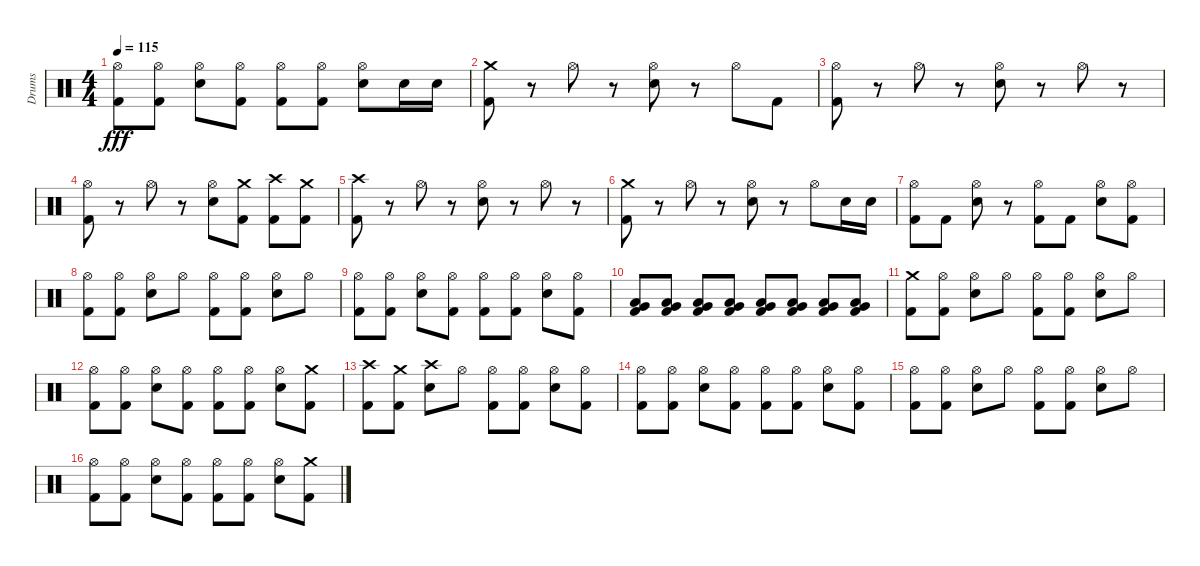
\track ("Drums" "Drums") {instrument percussion}
\staff {score}
\articulation defaults
\ts (4 4)
\tempo 115
\clef neutral
\ks c
("Hi-Hat (open)" "Kick (hit) 2").8{dy fff} ("Hi-Hat (open)" "Kick (hit) 2").8 ("Hi-Hat (open)" "Electric Snare (hit)").8 ("Hi-Hat (open)" "Kick (hit) 2").8 ("Hi-Hat (open)" "Kick (hit) 2").8 ("Hi-Hat (open)" "Kick (hit) 2").8 ("Hi-Hat (open)" "Electric Snare (hit)").8 "Electric Snare (hit)".16 "Electric Snare (hit)".16 |
("Crash medium (hit)" "Kick (hit) 2").8 r.8 "Hi-Hat (open)".8 r.8 ("Hi-Hat (open)" "Electric Snare (hit)").8 r.8 "Hi-Hat (open)".8 "Kick (hit) 2".8 |
("Hi-Hat (open)" "Kick (hit) 2").8 r.8 "Hi-Hat (open)".8 r.8 ("Hi-Hat (open)" "Electric Snare (hit)").8 r.8 "Hi-Hat (open)".8 r.8 |
("Hi-Hat (open)" "Kick (hit) 2").8 r.8 "Hi-Hat (open)".8 r.8 ("Hi-Hat (open)" "Electric Snare (hit)").8 ("Kick (hit) 2" "Crash medium (hit)").8 ("Kick (hit) 2" "Crash high (hit)").8 ("Kick (hit) 2" "Crash medium (hit)").8 |
("Kick (hit) 2" "Crash high (hit)").8 r.8 "Hi-Hat (open)".8 r.8 ("Hi-Hat (open)" "Electric Snare (hit)").8 r.8 "Hi-Hat (open)".8 r.8 |
("Kick (hit) 2" "Crash medium (hit)").8 r.8 "Hi-Hat (open)".8 r.8 ("Hi-Hat (open)" "Electric Snare (hit)").8 r.8 "Hi-Hat (open)".8 "Electric Snare (hit)".16 "Electric Snare (hit)".16 |
("Hi-Hat (open)" "Kick (hit) 2").8 "Kick (hit) 2".8 ("Hi-Hat (open)" "Electric Snare (hit)").8 r.8 ("Hi-Hat (open)" "Kick (hit) 2").8 "Kick (hit) 2".8 ("Hi-Hat (open)" "Electric Snare (hit)").8 ("Kick (hit) 2" "Hi-Hat (open)").8 |
("Hi-Hat (open)" "Kick (hit) 2").8 ("Hi-Hat (open)" "Kick (hit) 2").8 ("Hi-Hat (open)" "Electric Snare (hit)").8 "Hi-Hat (open)".8 ("Hi-Hat (open)" "Kick (hit) 2").8 ("Hi-Hat (open)" "Kick (hit) 2").8 ("Hi-Hat (open)" "Electric Snare (hit)").8 "Hi-Hat (open)".8 |
("Hi-Hat (open)" "Kick (hit) 2").8 ("Hi-Hat (open)" "Kick (hit) 2").8 ("Hi-Hat (open)" "Electric Snare (hit)").8 ("Hi-Hat (open)" "Kick (hit) 2").8 ("Hi-Hat (open)" "Kick (hit) 2").8 ("Hi-Hat (open)" "Kick (hit) 2").8 ("Hi-Hat (open)" "Electric Snare (hit)").8 ("Hi-Hat (open)" "Kick (hit) 2").8 |
("Low Tom (hit)" "Very Low Tom (hit)" "Kick (hit) 2").8 ("Kick (hit) 2" "Very Low Tom (hit)" "Low Tom (hit)").8 ("Kick (hit) 2" "Very Low Tom (hit)" "Low Tom (hit)").8 ("Kick (hit) 2" "Very Low Tom (hit)" "Low Tom (hit)").8 ("Kick (hit) 2" "Very Low Tom (hit)" "Low Tom (hit)").8 ("Kick (hit) 2" "Very Low Tom (hit)" "Low Tom (hit)").8 ("Kick (hit) 2" "Very Low Tom (hit)" "Low Tom (hit)").8 ("Kick (hit) 2" "Very Low Tom (hit)" "Low Tom (hit)").8 |
("Kick (hit) 2" "Crash medium (hit)").8 ("Hi-Hat (open)" "Kick (hit) 2").8 ("Hi-Hat (open)" "Electric Snare (hit)").8 "Hi-Hat (open)".8 ("Hi-Hat (open)" "Kick (hit) 2").8 ("Hi-Hat (open)" "Kick (hit) 2").8 ("Hi-Hat (open)" "Electric Snare (hit)").8 "Hi-Hat (open)".8 |
("Hi-Hat (open)" "Kick (hit) 2").8 ("Hi-Hat (open)" "Kick (hit) 2").8 ("Hi-Hat (open)" "Electric Snare (hit)").8 ("Kick (hit) 2" "Hi-Hat (open)").8 ("Hi-Hat (open)" "Kick (hit) 2").8 ("Hi-Hat (open)" "Kick (hit) 2").8 ("Hi-Hat (open)" "Electric Snare (hit)").8 ("Crash medium (hit)" "Kick (hit) 2").8 |
("Kick (hit) 2" "Crash high (hit)").8 ("Crash medium (hit)" "Kick (hit) 2").8 ("Crash high (hit)" "Electric Snare (hit)").8 "Hi-Hat (open)".8 ("Hi-Hat (open)" "Kick (hit) 2").8 ("Hi-Hat (open)" "Kick (hit) 2").8 ("Hi-Hat (open)" "Electric Snare (hit)").8 ("Hi-Hat (open)" "Kick (hit) 2").8 |
("Hi-Hat (open)" "Kick (hit) 2").8 ("Hi-Hat (open)" "Kick (hit) 2").8 ("Hi-Hat (open)" "Electric Snare (hit)").8 ("Hi-Hat (open)" "Kick (hit) 2").8 ("Hi-Hat (open)" "Kick (hit) 2").8 ("Hi-Hat (open)" "Kick (hit) 2").8 ("Hi-Hat (open)" "Electric Snare (hit)").8 ("Hi-Hat (open)" "Kick (hit) 2").8 |
("Kick (hit) 2" "Hi-Hat (open)").8 ("Hi-Hat (open)" "Kick (hit) 2").8 ("Hi-Hat (open)" "Electric Snare (hit)").8 "Hi-Hat (open)".8 ("Hi-Hat (open)" "Kick (hit) 2").8 ("Hi-Hat (open)" "Kick (hit) 2").8 ("Hi-Hat (open)" "Electric Snare (hit)").8 "Hi-Hat (open)".8 |
("Hi-Hat (open)" "Kick (hit) 2").8 ("Hi-Hat (open)" "Kick (hit) 2").8 ("Hi-Hat (open)" "Electric Snare (hit)").8 ("Kick (hit) 2" "Hi-Hat (open)").8 ("Hi-Hat (open)" "Kick (hit) 2").8 ("Hi-Hat (open)" "Kick (hit) 2").8 ("Hi-Hat (open)" "Electric Snare (hit)").8 ("Crash medium (hit)" "Kick (hit) 2").8
